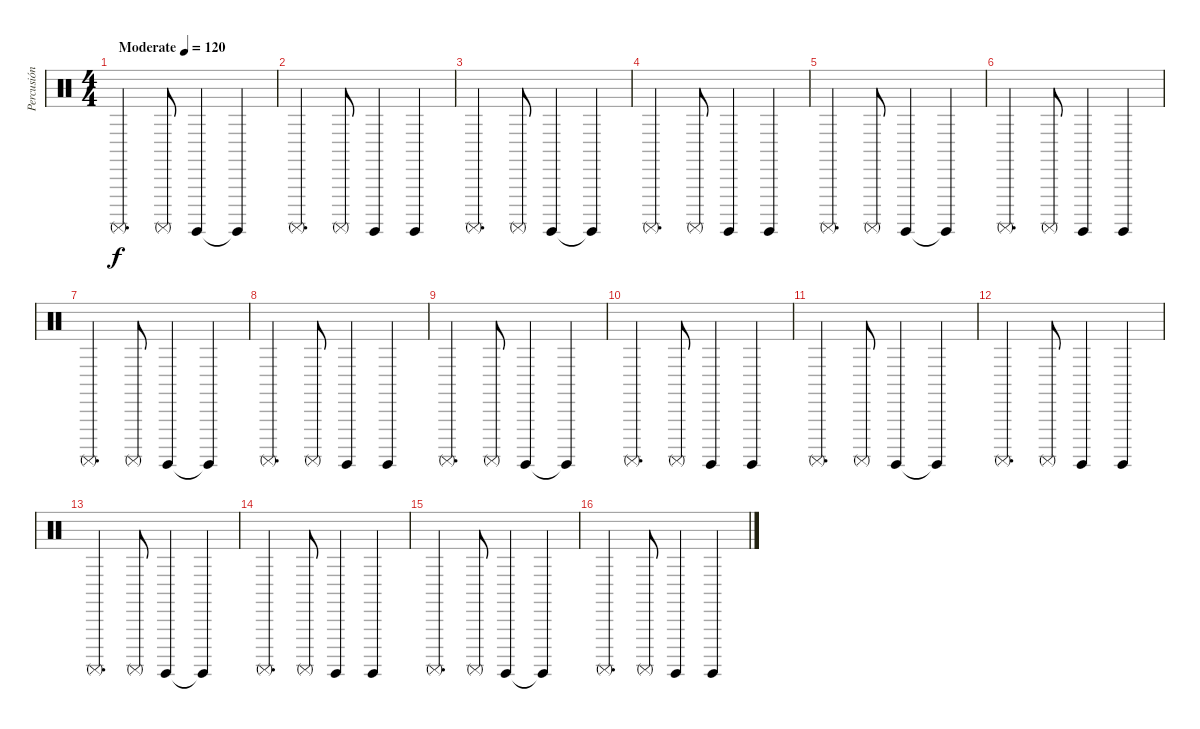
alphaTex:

\track ("Percusión" "Percusión") {instrument percussion}
\staff {score}
\articulation defaults
\ts (4 4)
\tempo (120 "Moderate")
\clef neutral
\ks c "Surdo (mute)".4{d dy f} "Surdo (mute)".8 "Surdo (hit)".4 "Surdo (hit)"{t}.4
|
"Surdo (mute)".4{d} "Surdo (mute)".8 "Surdo (hit)".4 "Surdo (hit)".4 |
"Surdo (mute)".4{d} "Surdo (mute)".8 "Surdo (hit)".4 "Surdo (hit)"{t}.4 |
"Surdo (mute)".4{d} "Surdo (mute)".8 "Surdo (hit)".4 "Surdo (hit)".4 |
"Surdo (mute)".4{d} "Surdo (mute)".8 "Surdo (hit)".4 "Surdo (hit)"{t}.4 |
"Surdo (mute)".4{d} "Surdo (mute)".8 "Surdo (hit)".4 "Surdo (hit)".4 |
"Surdo (mute)".4{d} "Surdo (mute)".8 "Surdo (hit)".4 "Surdo (hit)"{t}.4 |
"Surdo (mute)".4{d} "Surdo (mute)".8 "Surdo (hit)".4 "Surdo (hit)".4 |
"Surdo (mute)".4{d} "Surdo (mute)".8 "Surdo (hit)".4 "Surdo (hit)"{t}.4 |
"Surdo (mute)".4{d} "Surdo (mute)".8 "Surdo (hit)".4 "Surdo (hit)".4 |
"Surdo (mute)".4{d} "Surdo (mute)".8 "Surdo (hit)".4 "Surdo (hit)"{t}.4 |
"Surdo (mute)".4{d} "Surdo (mute)".8 "Surdo (hit)".4 "Surdo (hit)".4 |
"Surdo (mute)".4{d} "Surdo (mute)".8 "Surdo (hit)".4 "Surdo (hit)"{t}.4 |
"Surdo (mute)".4{d} "Surdo (mute)".8 "Surdo (hit)".4 "Surdo (hit)".4 |
"Surdo (mute)".4{d} "Surdo (mute)".8 "Surdo (hit)".4 "Surdo (hit)"{t}.4 |
"Surdo (mute)".4{d} "Surdo (mute)".8 "Surdo (hit)".4 "Surdo (hit)".4
